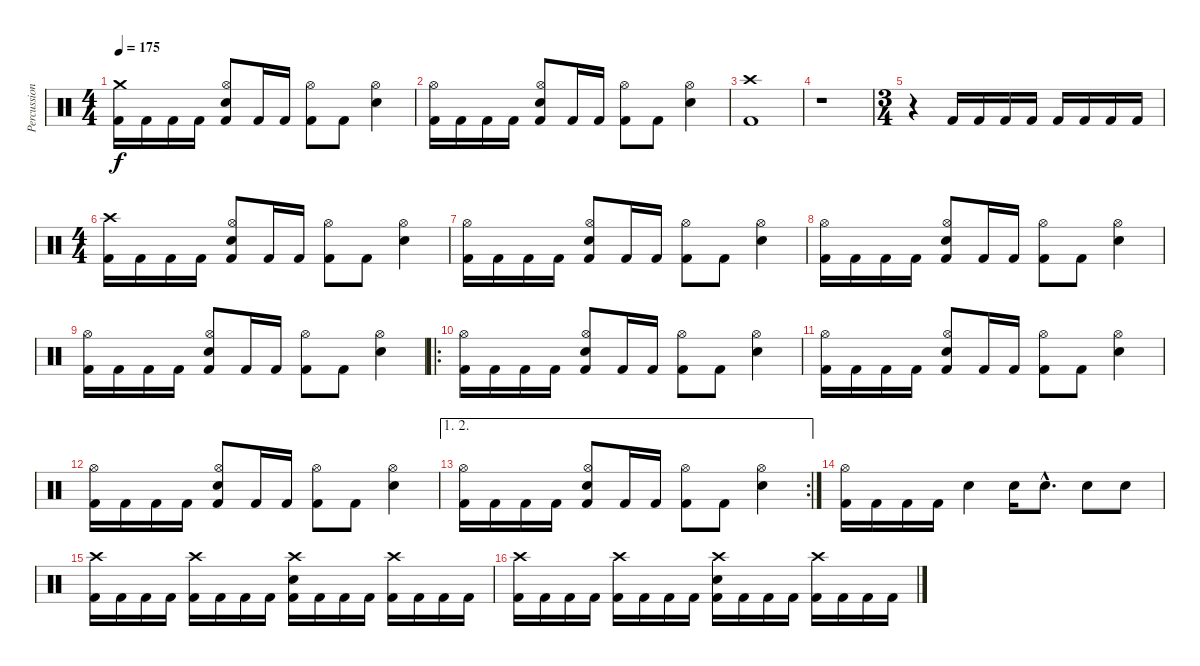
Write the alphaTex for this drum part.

\track ("Percussion" "Percussion") {instrument percussion}
\staff {score}
\articulation defaults
\ts (4 4)
\tempo 175
\clef neutral
\ks c
("Crash medium (hit)" "Kick (hit) 2").16{dy f} "Kick (hit) 2".16 "Kick (hit) 2".16 "Kick (hit) 2".16 ("Hi-Hat (open)" "Snare (hit) 2" "Kick (hit) 2").8 "Kick (hit) 2".16 "Kick (hit) 2".16 ("Hi-Hat (open)" "Kick (hit) 2").8 "Kick (hit) 2".8 ("Hi-Hat (open)" "Snare (hit) 2").4 |
("Hi-Hat (open)" "Kick (hit) 2").16 "Kick (hit) 2".16 "Kick (hit) 2".16 "Kick (hit) 2".16 ("Hi-Hat (open)" "Snare (hit) 2" "Kick (hit) 2").8 "Kick (hit) 2".16 "Kick (hit) 2".16 ("Hi-Hat (open)" "Kick (hit) 2").8 "Kick (hit) 2".8 ("Hi-Hat (open)" "Snare (hit) 2").4 |
("Crash high (hit)" "Kick (hit) 2").1 |
r.1 |
\ts (3 4)
r.4 "Kick (hit) 2".16 "Kick (hit) 2".16 "Kick (hit) 2".16 "Kick (hit) 2".16 "Kick (hit) 2".16 "Kick (hit) 2".16 "Kick (hit) 2".16 "Kick (hit) 2".16 |
\ts (4 4)
("Crash high (hit)" "Kick (hit) 2").16 "Kick (hit) 2".16 "Kick (hit) 2".16 "Kick (hit) 2".16 ("Hi-Hat (open)" "Snare (hit) 2" "Kick (hit) 2").8 "Kick (hit) 2".16 "Kick (hit) 2".16 ("Hi-Hat (open)" "Kick (hit) 2").8 "Kick (hit) 2".8 ("Hi-Hat (open)" "Snare (hit) 2").4 |
("Hi-Hat (open)" "Kick (hit) 2").16 "Kick (hit) 2".16 "Kick (hit) 2".16 "Kick (hit) 2".16 ("Hi-Hat (open)" "Snare (hit) 2" "Kick (hit) 2").8 "Kick (hit) 2".16 "Kick (hit) 2".16 ("Hi-Hat (open)" "Kick (hit) 2").8 "Kick (hit) 2".8 ("Hi-Hat (open)" "Snare (hit) 2").4 |
("Hi-Hat (open)" "Kick (hit) 2").16 "Kick (hit) 2".16 "Kick (hit) 2".16 "Kick (hit) 2".16 ("Hi-Hat (open)" "Snare (hit) 2" "Kick (hit) 2").8 "Kick (hit) 2".16 "Kick (hit) 2".16 ("Hi-Hat (open)" "Kick (hit) 2").8 "Kick (hit) 2".8 ("Hi-Hat (open)" "Snare (hit) 2").4 |
("Hi-Hat (open)" "Kick (hit) 2").16 "Kick (hit) 2".16 "Kick (hit) 2".16 "Kick (hit) 2".16 ("Hi-Hat (open)" "Snare (hit) 2" "Kick (hit) 2").8 "Kick (hit) 2".16 "Kick (hit) 2".16 ("Hi-Hat (open)" "Kick (hit) 2").8 "Kick (hit) 2".8 ("Hi-Hat (open)" "Snare (hit) 2").4 |
\ro
("Hi-Hat (open)" "Kick (hit) 2").16 "Kick (hit) 2".16 "Kick (hit) 2".16 "Kick (hit) 2".16 ("Hi-Hat (open)" "Snare (hit) 2" "Kick (hit) 2").8 "Kick (hit) 2".16 "Kick (hit) 2".16 ("Hi-Hat (open)" "Kick (hit) 2").8 "Kick (hit) 2".8 ("Hi-Hat (open)" "Snare (hit) 2").4 |
("Hi-Hat (open)" "Kick (hit) 2").16 "Kick (hit) 2".16 "Kick (hit) 2".16 "Kick (hit) 2".16 ("Hi-Hat (open)" "Snare (hit) 2" "Kick (hit) 2").8 "Kick (hit) 2".16 "Kick (hit) 2".16 ("Hi-Hat (open)" "Kick (hit) 2").8 "Kick (hit) 2".8 ("Hi-Hat (open)" "Snare (hit) 2").4 |
("Hi-Hat (open)" "Kick (hit) 2").16 "Kick (hit) 2".16 "Kick (hit) 2".16 "Kick (hit) 2".16 ("Hi-Hat (open)" "Snare (hit) 2" "Kick (hit) 2").8 "Kick (hit) 2".16 "Kick (hit) 2".16 ("Hi-Hat (open)" "Kick (hit) 2").8 "Kick (hit) 2".8 ("Hi-Hat (open)" "Snare (hit) 2").4 |
\ae (1 2)
\rc 2
("Hi-Hat (open)" "Kick (hit) 2").16 "Kick (hit) 2".16 "Kick (hit) 2".16 "Kick (hit) 2".16 ("Hi-Hat (open)" "Snare (hit) 2" "Kick (hit) 2").8 "Kick (hit) 2".16 "Kick (hit) 2".16 ("Hi-Hat (open)" "Kick (hit) 2").8 "Kick (hit) 2".8 ("Hi-Hat (open)" "Snare (hit) 2").4 |
("Hi-Hat (open)" "Kick (hit) 2").16 "Kick (hit) 2".16 "Kick (hit) 2".16 "Kick (hit) 2".16 "Snare (hit) 2".4 "Snare (hit) 2".16 "Snare (hit) 2"{hac}.8{d} "Snare (hit) 2".8 "Snare (hit) 2".8 |
("Crash high (hit)" "Kick (hit) 2").16 "Kick (hit) 2".16 "Kick (hit) 2".16 "Kick (hit) 2".16 ("Crash high (hit)" "Kick (hit) 2").16 "Kick (hit) 2".16 "Kick (hit) 2".16 "Kick (hit) 2".16 ("Crash high (hit)" "Snare (hit) 2" "Kick (hit) 2").16 "Kick (hit) 2".16 "Kick (hit) 2".16 "Kick (hit) 2".16 ("Crash high (hit)" "Kick (hit) 2").16 "Kick (hit) 2".16 "Kick (hit) 2".16 "Kick (hit) 2".16 |
("Crash high (hit)" "Kick (hit) 2").16 "Kick (hit) 2".16 "Kick (hit) 2".16 "Kick (hit) 2".16 ("Crash high (hit)" "Kick (hit) 2").16 "Kick (hit) 2".16 "Kick (hit) 2".16 "Kick (hit) 2".16 ("Crash high (hit)" "Snare (hit) 2" "Kick (hit) 2").16 "Kick (hit) 2".16 "Kick (hit) 2".16 "Kick (hit) 2".16 ("Crash high (hit)" "Kick (hit) 2").16 "Kick (hit) 2".16 "Kick (hit) 2".16 "Kick (hit) 2".16
